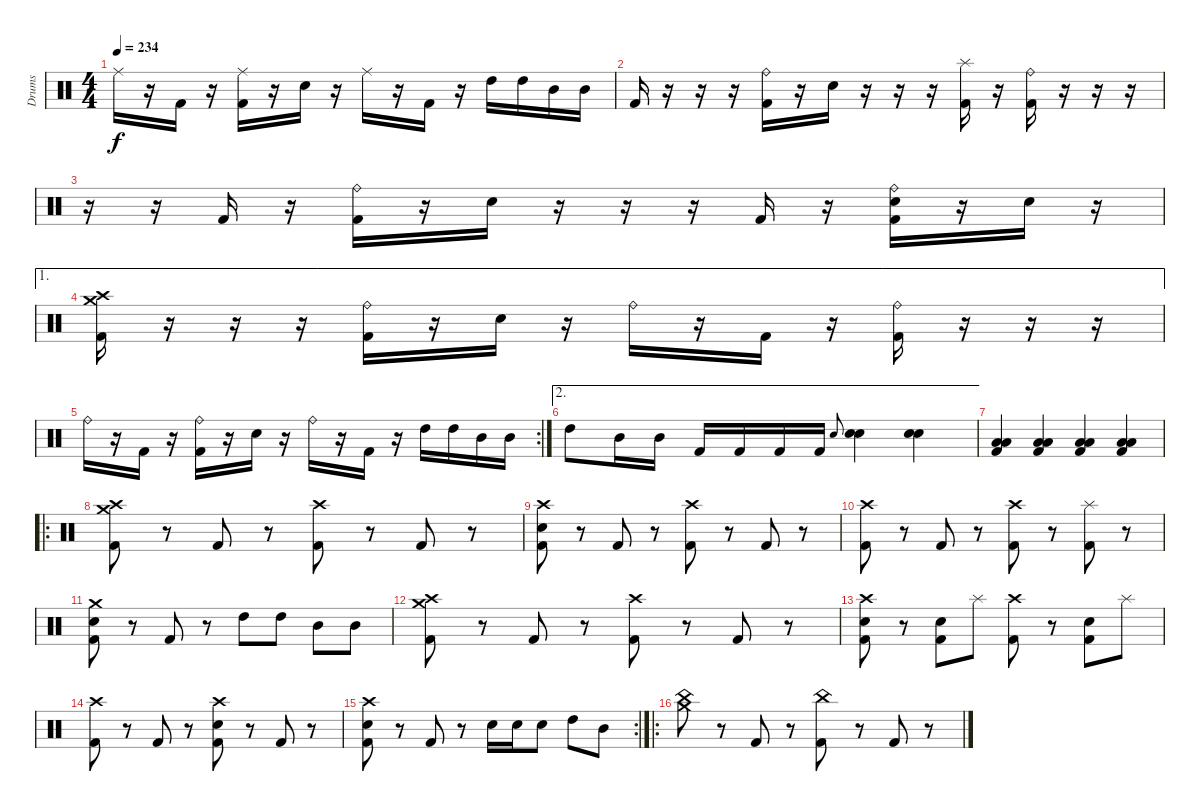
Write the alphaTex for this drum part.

\track ("Drums" "Drums") {instrument percussion}
\staff {score}
\articulation defaults
\ts (4 4)
\tempo 234
\clef neutral
\ks c "Ride (middle)".16{dy f}
r.16 "Kick (hit) 2".16 r.16 ("Ride (middle)" "Kick (hit) 2").16 r.16 "Electric Snare (hit)".16 r.16 "Ride (middle)".16 r.16 "Kick (hit) 2".16 r.16 "High Tom (hit)".16 "High Tom (hit)".16 "Mid Tom (hit)".16 "Mid Tom (hit)".16 |
"Kick (hit) 2".16 r.16 r.16 r.16 ("Ride (bell)" "Kick (hit) 2").16 r.16 "Electric Snare (hit)".16 r.16 r.16 r.16 ("Splash (hit)" "Kick (hit) 2").16 r.16 ("Ride (bell)" "Kick (hit) 2").16 r.16 r.16 r.16 |
r.16 r.16 "Kick (hit) 2".16 r.16 ("Ride (bell)" "Kick (hit) 2").16 r.16 "Electric Snare (hit)".16 r.16 r.16 r.16 "Kick (hit) 2".16 r.16 ("Ride (bell)" "Electric Snare (hit)" "Kick (hit) 2").16 r.16 "Electric Snare (hit)".16 r.16 |
\ae 1
("Crash medium (hit)" "Crash high (hit)" "Kick (hit) 2").16 r.16 r.16 r.16 ("Ride (bell)" "Kick (hit) 2").16 r.16 "Electric Snare (hit)".16 r.16 "Ride (bell)".16 r.16 "Kick (hit) 2".16 r.16 ("Ride (bell)" "Kick (hit) 2").16 r.16 r.16 r.16 |
\rc 2 "Ride (bell)".16
r.16 "Kick (hit) 2".16 r.16 ("Ride (bell)" "Kick (hit) 2").16 r.16 "Electric Snare (hit)".16 r.16 "Ride (bell)".16 r.16 "Kick (hit) 2".16 r.16 "High Tom (hit)".16 "High Tom (hit)".16 "Mid Tom (hit)".16 "Mid Tom (hit)".16 |
\ae 2 "High Tom (hit)".8 "Mid Tom (hit)".16 "Mid Tom (hit)".16 "Kick (hit) 2".16 "Kick (hit) 2".16 "Kick (hit) 2".16 "Kick (hit) 2".16 "Electric Snare (hit)"{sl}.8{gr onbeat}
("Electric Snare (hit)" "Electric Snare (hit)").4 ("Electric Snare (hit)" "Electric Snare (hit)").4 |
("Low Floor Tom (hit)" "Low Floor Tom (hit)" "Kick (hit) 2").4 ("Low Floor Tom (hit)" "Low Floor Tom (hit)" "Kick (hit) 2").4 ("Low Floor Tom (hit)" "Low Floor Tom (hit)" "Kick (hit) 2").4 ("Low Floor Tom (hit)" "Low Floor Tom (hit)" "Kick (hit) 2").4 |
\ro
("Crash medium (hit)" "Crash high (hit)" "Kick (hit) 2").8 r.8 "Kick (hit) 2".8 r.8 ("Crash high (hit)" "Kick (hit) 2").8 r.8 "Kick (hit) 2".8 r.8 |
("Crash high (hit)" "Electric Snare (hit)" "Kick (hit) 2").8 r.8 "Kick (hit) 2".8 r.8 ("Crash high (hit)" "Kick (hit) 2").8 r.8 "Kick (hit) 2".8 r.8 |
("Crash high (hit)" "Kick (hit) 2").8 r.8 "Kick (hit) 2".8 r.8 ("Crash high (hit)" "Kick (hit) 2").8 r.8 ("Splash (hit)" "Kick (hit) 2").8 r.8 |
("Crash medium (hit)" "Electric Snare (hit)" "Kick (hit) 2").8 r.8 "Kick (hit) 2".8 r.8 "High Tom (hit)".8 "High Tom (hit)".8 "Mid Tom (hit)".8 "Mid Tom (hit)".8 |
("Crash medium (hit)" "Crash high (hit)" "Kick (hit) 2").8 r.8 "Kick (hit) 2".8 r.8 ("Crash high (hit)" "Kick (hit) 2").8 r.8 "Kick (hit) 2".8 r.8 |
("Crash high (hit)" "Electric Snare (hit)" "Kick (hit) 2").8 r.8 ("Electric Snare (hit)" "Kick (hit) 2").8 "Splash (hit)".8 ("Crash high (hit)" "Kick (hit) 2").8 r.8 ("Electric Snare (hit)" "Kick (hit) 2").8 "Splash (hit)".8 |
("Crash high (hit)" "Kick (hit) 2").8 r.8 "Kick (hit) 2".8 r.8 ("Crash high (hit)" "Electric Snare (hit)" "Kick (hit) 2").8 r.8 "Kick (hit) 2".8 r.8 |
\rc 2
("Crash high (hit)" "Electric Snare (hit)" "Kick (hit) 2").8 r.8 "Kick (hit) 2".8 r.8 "Electric Snare (hit)".16 "Electric Snare (hit)".16 "Electric Snare (hit)".8 "High Tom (hit)".8 "Mid Tom (hit)".8 |
\ro
("Crash medium (hit)" "China (hit)").8 r.8 "Kick (hit) 2".8 r.8 ("China (hit)" "Kick (hit) 2").8 r.8 "Kick (hit) 2".8 r.8
